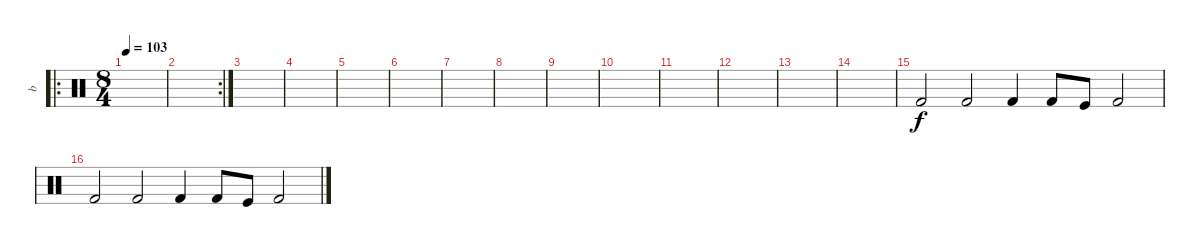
\track ("b" "b") {instrument percussion}
\staff {score}
\articulation defaults
\ro
\ts (8 4)
\tempo 103
\clef neutral
\ks c
|
\rc 2
|
|
|
|
|
|
|
|
|
|
|
|
|
"Kick (hit) 2".2 "Kick (hit) 2".2 "Kick (hit) 2".4 "Kick (hit) 2".8 "Kick (hit)".8 "Kick (hit) 2".2 |
"Kick (hit) 2".2 "Kick (hit) 2".2 "Kick (hit) 2".4 "Kick (hit) 2".8 "Kick (hit)".8 "Kick (hit) 2".2
